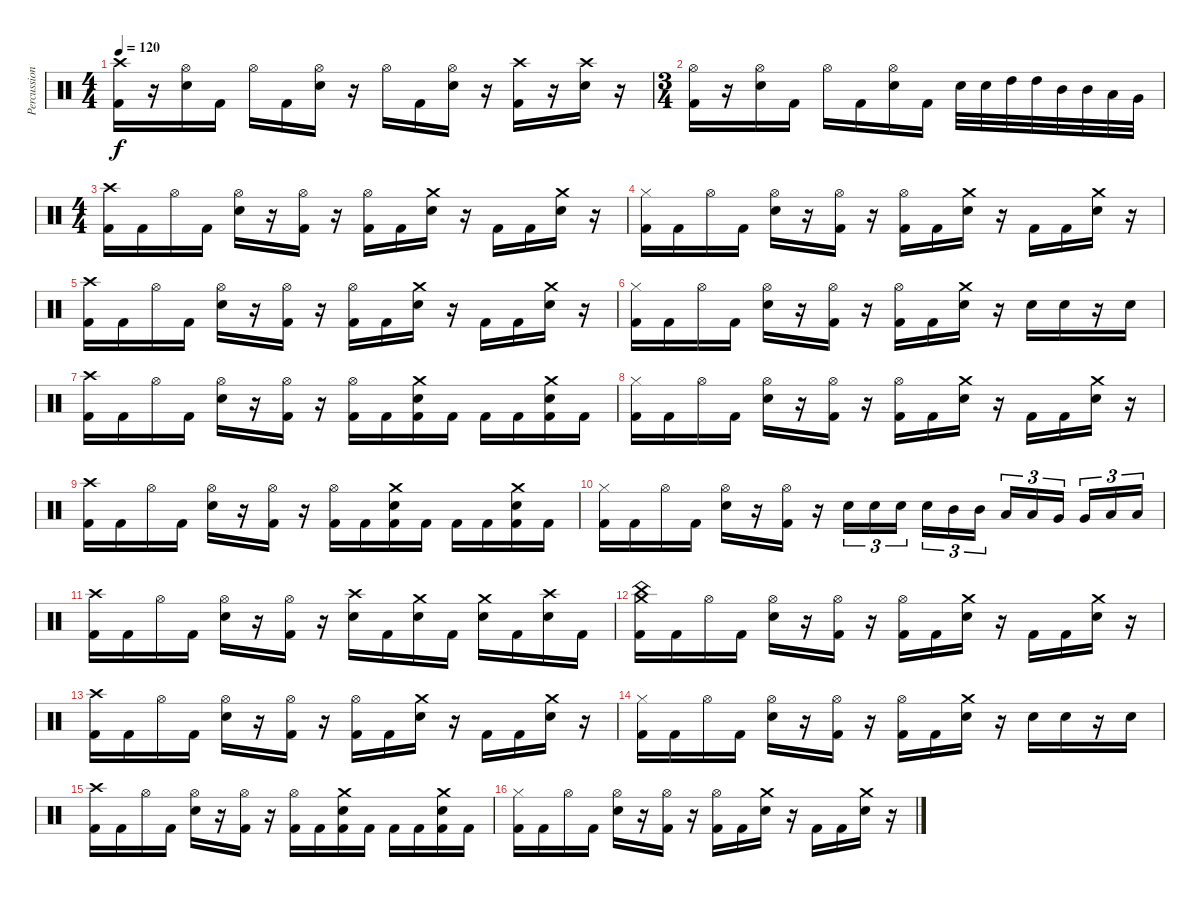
\track ("Percussion" "Percussion") {instrument percussion}
\staff {score}
\articulation defaults
\ts (4 4)
\tempo 120
\clef neutral
\ks c
("Crash high (hit)" "Kick (hit) 2").16{dy f} r.16 ("Hi-Hat (open)" "Snare (hit) 2").16 "Kick (hit) 2".16 "Hi-Hat (open)".16 "Kick (hit) 2".16 ("Hi-Hat (open)" "Snare (hit) 2").16 r.16 "Hi-Hat (open)".16 "Kick (hit) 2".16 ("Hi-Hat (open)" "Snare (hit) 2").16 r.16 ("Crash high (hit)" "Kick (hit) 2").16 r.16 ("Crash high (hit)" "Snare (hit) 2").16 r.16 |
\ts (3 4)
("Hi-Hat (open)" "Kick (hit) 2").16 r.16 ("Hi-Hat (open)" "Snare (hit) 2").16 "Kick (hit) 2".16 "Hi-Hat (open)".16 "Kick (hit) 2".16 ("Hi-Hat (open)" "Snare (hit) 2").16 "Kick (hit) 2".16 "Snare (hit) 2".32 "Snare (hit) 2".32 "High Tom (hit)".32 "High Tom (hit)".32 "Mid Tom (hit)".32 "Mid Tom (hit)".32 "Low Tom (hit)".32 "Very Low Tom (hit)".32 |
\ts (4 4)
("Crash high (hit)" "Kick (hit) 2").16 "Kick (hit) 2".16 "Hi-Hat (open)".16 "Kick (hit) 2".16 ("Hi-Hat (open)" "Snare (hit) 2").16 r.16 ("Hi-Hat (open)" "Kick (hit) 2").16 r.16 ("Hi-Hat (open)" "Kick (hit) 2").16 "Kick (hit) 2".16 ("Crash medium (hit)" "Snare (hit) 2").16 r.16 "Kick (hit) 2".16 "Kick (hit) 2".16 ("Crash medium (hit)" "Snare (hit) 2").16 r.16 |
("Hi-Hat (closed)" "Kick (hit) 2").16 "Kick (hit) 2".16 "Hi-Hat (open)".16 "Kick (hit) 2".16 ("Hi-Hat (open)" "Snare (hit) 2").16 r.16 ("Hi-Hat (open)" "Kick (hit) 2").16 r.16 ("Hi-Hat (open)" "Kick (hit) 2").16 "Kick (hit) 2".16 ("Crash medium (hit)" "Snare (hit) 2").16 r.16 "Kick (hit) 2".16 "Kick (hit) 2".16 ("Crash medium (hit)" "Snare (hit) 2").16 r.16 |
("Crash high (hit)" "Kick (hit) 2").16 "Kick (hit) 2".16 "Hi-Hat (open)".16 "Kick (hit) 2".16 ("Hi-Hat (open)" "Snare (hit) 2").16 r.16 ("Hi-Hat (open)" "Kick (hit) 2").16 r.16 ("Hi-Hat (open)" "Kick (hit) 2").16 "Kick (hit) 2".16 ("Crash medium (hit)" "Snare (hit) 2").16 r.16 "Kick (hit) 2".16 "Kick (hit) 2".16 ("Crash medium (hit)" "Snare (hit) 2").16 r.16 |
("Hi-Hat (closed)" "Kick (hit) 2").16 "Kick (hit) 2".16 "Hi-Hat (open)".16 "Kick (hit) 2".16 ("Hi-Hat (open)" "Snare (hit) 2").16 r.16 ("Hi-Hat (open)" "Kick (hit) 2").16 r.16 ("Hi-Hat (open)" "Kick (hit) 2").16 "Kick (hit) 2".16 ("Crash medium (hit)" "Snare (hit) 2").16 r.16 "Snare (hit) 2".16 "Snare (hit) 2".16 r.16 "Snare (hit) 2".16 |
("Crash high (hit)" "Kick (hit) 2").16 "Kick (hit) 2".16 "Hi-Hat (open)".16 "Kick (hit) 2".16 ("Hi-Hat (open)" "Snare (hit) 2").16 r.16 ("Hi-Hat (open)" "Kick (hit) 2").16 r.16 ("Hi-Hat (open)" "Kick (hit) 2").16 "Kick (hit) 2".16 ("Crash medium (hit)" "Snare (hit) 2" "Kick (hit) 2").16 "Kick (hit) 2".16 "Kick (hit) 2".16 "Kick (hit) 2".16 ("Crash medium (hit)" "Snare (hit) 2" "Kick (hit) 2").16 "Kick (hit) 2".16 |
("Hi-Hat (closed)" "Kick (hit) 2").16 "Kick (hit) 2".16 "Hi-Hat (open)".16 "Kick (hit) 2".16 ("Hi-Hat (open)" "Snare (hit) 2").16 r.16 ("Hi-Hat (open)" "Kick (hit) 2").16 r.16 ("Hi-Hat (open)" "Kick (hit) 2").16 "Kick (hit) 2".16 ("Crash medium (hit)" "Snare (hit) 2").16 r.16 "Kick (hit) 2".16 "Kick (hit) 2".16 ("Crash medium (hit)" "Snare (hit) 2").16 r.16 |
("Crash high (hit)" "Kick (hit) 2").16 "Kick (hit) 2".16 "Hi-Hat (open)".16 "Kick (hit) 2".16 ("Hi-Hat (open)" "Snare (hit) 2").16 r.16 ("Hi-Hat (open)" "Kick (hit) 2").16 r.16 ("Hi-Hat (open)" "Kick (hit) 2").16 "Kick (hit) 2".16 ("Crash medium (hit)" "Snare (hit) 2" "Kick (hit) 2").16 "Kick (hit) 2".16 "Kick (hit) 2".16 "Kick (hit) 2".16 ("Crash medium (hit)" "Snare (hit) 2" "Kick (hit) 2").16 "Kick (hit) 2".16 |
("Hi-Hat (closed)" "Kick (hit) 2").16 "Kick (hit) 2".16 "Hi-Hat (open)".16 "Kick (hit) 2".16 ("Hi-Hat (open)" "Snare (hit) 2").16 r.16 ("Hi-Hat (open)" "Kick (hit) 2").16 r.16 "Snare (hit) 2".16{tu (3 2)} "Snare (hit) 2".16{tu (3 2)} "Snare (hit) 2".16{tu (3 2) beam splitsecondary} "Snare (hit) 2".16{tu (3 2)} "Mid Tom (hit)".16{tu (3 2)} "Mid Tom (hit)".16{tu (3 2)} "Low Tom (hit)".16{tu (3 2)} "Low Tom (hit)".16{tu (3 2)} "Very Low Tom (hit)".16{tu (3 2) beam splitsecondary} "Very Low Tom (hit)".16{tu (3 2)} "Low Floor Tom (hit)".16{tu (3 2)} "Low Floor Tom (hit)".16{tu (3 2)} |
("Crash high (hit)" "Kick (hit) 2").16 "Kick (hit) 2".16 "Hi-Hat (open)".16 "Kick (hit) 2".16 ("Hi-Hat (open)" "Snare (hit) 2").16 r.16 ("Hi-Hat (open)" "Kick (hit) 2").16 r.16 ("Crash high (hit)" "Snare (hit) 2").16 "Kick (hit) 2".16 ("Crash medium (hit)" "Snare (hit) 2").16 "Kick (hit) 2".16 ("Crash medium (hit)" "Snare (hit) 2").16 "Kick (hit) 2".16 ("Crash high (hit)" "Snare (hit) 2").16 "Kick (hit) 2".16 |
("China (hit)" "Crash medium (hit)" "Kick (hit) 2").16 "Kick (hit) 2".16 "Hi-Hat (open)".16 "Kick (hit) 2".16 ("Hi-Hat (open)" "Snare (hit) 2").16 r.16 ("Hi-Hat (open)" "Kick (hit) 2").16 r.16 ("Hi-Hat (open)" "Kick (hit) 2").16 "Kick (hit) 2".16 ("Crash medium (hit)" "Snare (hit) 2").16 r.16 "Kick (hit) 2".16 "Kick (hit) 2".16 ("Crash medium (hit)" "Snare (hit) 2").16 r.16 |
("Crash high (hit)" "Kick (hit) 2").16 "Kick (hit) 2".16 "Hi-Hat (open)".16 "Kick (hit) 2".16 ("Hi-Hat (open)" "Snare (hit) 2").16 r.16 ("Hi-Hat (open)" "Kick (hit) 2").16 r.16 ("Hi-Hat (open)" "Kick (hit) 2").16 "Kick (hit) 2".16 ("Crash medium (hit)" "Snare (hit) 2").16 r.16 "Kick (hit) 2".16 "Kick (hit) 2".16 ("Crash medium (hit)" "Snare (hit) 2").16 r.16 |
("Hi-Hat (closed)" "Kick (hit) 2").16 "Kick (hit) 2".16 "Hi-Hat (open)".16 "Kick (hit) 2".16 ("Hi-Hat (open)" "Snare (hit) 2").16 r.16 ("Hi-Hat (open)" "Kick (hit) 2").16 r.16 ("Hi-Hat (open)" "Kick (hit) 2").16 "Kick (hit) 2".16 ("Crash medium (hit)" "Snare (hit) 2").16 r.16 "Snare (hit) 2".16 "Snare (hit) 2".16 r.16 "Snare (hit) 2".16 |
("Crash high (hit)" "Kick (hit) 2").16 "Kick (hit) 2".16 "Hi-Hat (open)".16 "Kick (hit) 2".16 ("Hi-Hat (open)" "Snare (hit) 2").16 r.16 ("Hi-Hat (open)" "Kick (hit) 2").16 r.16 ("Hi-Hat (open)" "Kick (hit) 2").16 "Kick (hit) 2".16 ("Crash medium (hit)" "Snare (hit) 2" "Kick (hit) 2").16 "Kick (hit) 2".16 "Kick (hit) 2".16 "Kick (hit) 2".16 ("Crash medium (hit)" "Snare (hit) 2" "Kick (hit) 2").16 "Kick (hit) 2".16 |
("Hi-Hat (closed)" "Kick (hit) 2").16 "Kick (hit) 2".16 "Hi-Hat (open)".16 "Kick (hit) 2".16 ("Hi-Hat (open)" "Snare (hit) 2").16 r.16 ("Hi-Hat (open)" "Kick (hit) 2").16 r.16 ("Hi-Hat (open)" "Kick (hit) 2").16 "Kick (hit) 2".16 ("Crash medium (hit)" "Snare (hit) 2").16 r.16 "Kick (hit) 2".16 "Kick (hit) 2".16 ("Crash medium (hit)" "Snare (hit) 2").16 r.16
